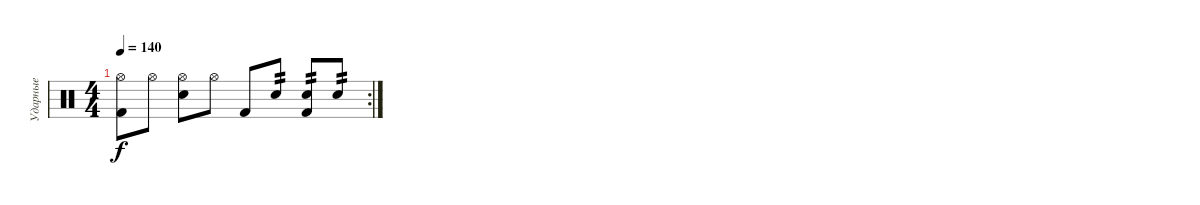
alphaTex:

\track ("Ударные" "Ударные") {instrument percussion}
\staff {score}
\articulation defaults
\rc 2
\ts (4 4)
\tempo 140
\clef neutral
\ks c
("Hi-Hat (open)" "Kick (hit) 2").8{dy f} "Hi-Hat (open)".8 ("Hi-Hat (open)" "Electric Snare (hit)").8 "Hi-Hat (open)".8 "Kick (hit) 2".8 "Electric Snare (hit)".8{tp 2} ("Electric Snare (hit)" "Kick (hit) 2").8{tp 2} "Electric Snare (hit)".8{tp 2}
